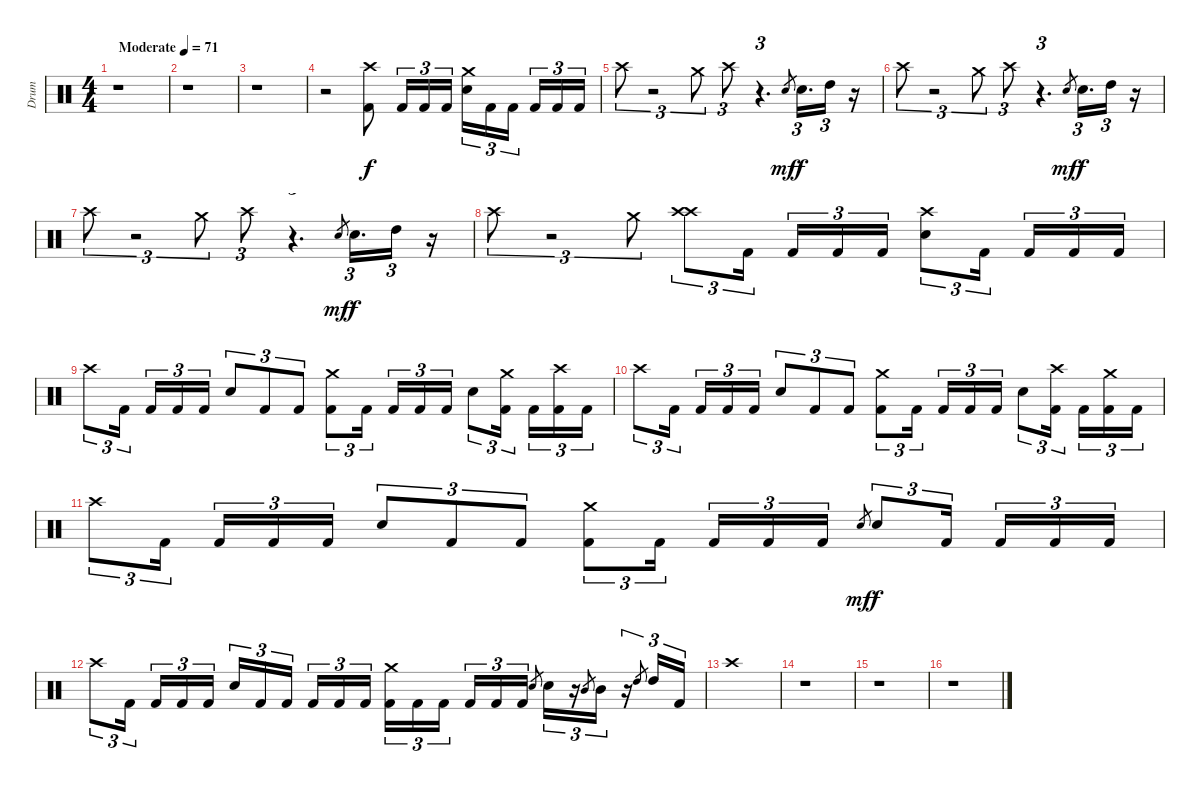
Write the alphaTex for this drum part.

\track ("Drum" "Drum") {instrument percussion}
\staff {score}
\articulation defaults
\ts (4 4)
\tempo (71 "Moderate")
\clef neutral
\ks c
r.1{dy f} |
r.1 |
r.1 |
r.2 ("Crash high (hit)" "Kick (hit) 2").8 "Kick (hit) 2".16{tu (3 2)} "Kick (hit) 2".16{tu (3 2)} "Kick (hit) 2".16{tu (3 2)} ("Crash medium (hit)" "Electric Snare (hit)").16{tu (3 2)} "Kick (hit) 2".16{tu (3 2)} "Kick (hit) 2".16{tu (3 2) beam splitsecondary} "Kick (hit) 2".16{tu (3 2)} "Kick (hit) 2".16{tu (3 2)} "Kick (hit) 2".16{tu (3 2)} |
"Crash high (hit)".8{tu (3 2)} r.2{tu (3 2)} "Crash medium (hit)".8{tu (3 2)} "Crash high (hit)".8{tu (3 2)} r.4{d tu (3 2)} "Electric Snare (hit)".8{gr dy mf} "Electric Snare (hit)".16{d tu (3 2) dy f} "High Tom (hit)".16{tu (3 2)} r.16 |
"Crash high (hit)".8{tu (3 2)} r.2{tu (3 2)} "Crash medium (hit)".8{tu (3 2)} "Crash high (hit)".8{tu (3 2)} r.4{d tu (3 2)} "Electric Snare (hit)".8{gr dy mf} "Electric Snare (hit)".16{d tu (3 2) dy f} "High Tom (hit)".16{tu (3 2)} r.16 |
"Crash high (hit)".8{tu (3 2)} r.2{tu (3 2)} "Crash medium (hit)".8{tu (3 2)} "Crash high (hit)".8{tu (3 2)} r.4{d tu (3 2)} "Electric Snare (hit)".8{gr dy mf} "Electric Snare (hit)".16{d tu (3 2) dy f} "High Tom (hit)".16{tu (3 2)} r.16 |
"Crash high (hit)".8{tu (3 2)} r.2{tu (3 2)} "Crash medium (hit)".8{tu (3 2)} ("Crash high (hit)" "Crash high (hit)").8{tu (3 2)} "Kick (hit) 2".16{tu (3 2) beam splitsecondary} "Kick (hit) 2".16{tu (3 2)} "Kick (hit) 2".16{tu (3 2)} "Kick (hit) 2".16{tu (3 2)} ("Crash high (hit)" "Electric Snare (hit)").8{tu (3 2)} "Kick (hit) 2".16{tu (3 2) beam splitsecondary} "Kick (hit) 2".16{tu (3 2)} "Kick (hit) 2".16{tu (3 2)} "Kick (hit) 2".16{tu (3 2)} |
"Crash high (hit)".8{tu (3 2)} "Kick (hit) 2".16{tu (3 2) beam splitsecondary} "Kick (hit) 2".16{tu (3 2)} "Kick (hit) 2".16{tu (3 2)} "Kick (hit) 2".16{tu (3 2)} "Electric Snare (hit)".8{tu (3 2)} "Kick (hit) 2".8{tu (3 2)} "Kick (hit) 2".8{tu (3 2)} ("Kick (hit) 2" "Crash medium (hit)").8{tu (3 2)} "Kick (hit) 2".16{tu (3 2) beam splitsecondary} "Kick (hit) 2".16{tu (3 2)} "Kick (hit) 2".16{tu (3 2)} "Kick (hit) 2".16{tu (3 2)} "Electric Snare (hit)".8{tu (3 2)} ("Crash medium (hit)" "Kick (hit) 2").16{tu (3 2) beam splitsecondary} "Kick (hit) 2".16{tu (3 2)} ("Crash high (hit)" "Kick (hit) 2").16{tu (3 2)} "Kick (hit) 2".16{tu (3 2)} |
"Crash high (hit)".8{tu (3 2)} "Kick (hit) 2".16{tu (3 2) beam splitsecondary} "Kick (hit) 2".16{tu (3 2)} "Kick (hit) 2".16{tu (3 2)} "Kick (hit) 2".16{tu (3 2)} "Electric Snare (hit)".8{tu (3 2)} "Kick (hit) 2".8{tu (3 2)} "Kick (hit) 2".8{tu (3 2)} ("Kick (hit) 2" "Crash medium (hit)").8{tu (3 2)} "Kick (hit) 2".16{tu (3 2) beam splitsecondary} "Kick (hit) 2".16{tu (3 2)} "Kick (hit) 2".16{tu (3 2)} "Kick (hit) 2".16{tu (3 2)} "Electric Snare (hit)".8{tu (3 2)} ("Crash high (hit)" "Kick (hit) 2").16{tu (3 2) beam splitsecondary} "Kick (hit) 2".16{tu (3 2)} ("Crash medium (hit)" "Kick (hit) 2").16{tu (3 2)} "Kick (hit) 2".16{tu (3 2)} |
"Crash high (hit)".8{tu (3 2)} "Kick (hit) 2".16{tu (3 2) beam splitsecondary} "Kick (hit) 2".16{tu (3 2)} "Kick (hit) 2".16{tu (3 2)} "Kick (hit) 2".16{tu (3 2)} "Electric Snare (hit)".8{tu (3 2)} "Kick (hit) 2".8{tu (3 2)} "Kick (hit) 2".8{tu (3 2)} ("Kick (hit) 2" "Crash medium (hit)").8{tu (3 2)} "Kick (hit) 2".16{tu (3 2) beam splitsecondary} "Kick (hit) 2".16{tu (3 2)} "Kick (hit) 2".16{tu (3 2)} "Kick (hit) 2".16{tu (3 2)} "Electric Snare (hit)".8{gr dy mf} "Electric Snare (hit)".8{tu (3 2) dy f} "Kick (hit) 2".16{tu (3 2) beam splitsecondary} "Kick (hit) 2".16{tu (3 2)} "Kick (hit) 2".16{tu (3 2)} "Kick (hit) 2".16{tu (3 2)} |
"Crash high (hit)".8{tu (3 2)} "Kick (hit) 2".16{tu (3 2) beam splitsecondary} "Kick (hit) 2".16{tu (3 2)} "Kick (hit) 2".16{tu (3 2)} "Kick (hit) 2".16{tu (3 2)} "Electric Snare (hit)".16{tu (3 2)} "Kick (hit) 2".16{tu (3 2)} "Kick (hit) 2".16{tu (3 2) beam splitsecondary} "Kick (hit) 2".16{tu (3 2)} "Kick (hit) 2".16{tu (3 2)} "Kick (hit) 2".16{tu (3 2)} ("Kick (hit) 2" "Crash medium (hit)").16{tu (3 2)} "Kick (hit) 2".16{tu (3 2)} "Kick (hit) 2".16{tu (3 2) beam splitsecondary} "Kick (hit) 2".16{tu (3 2)} "Kick (hit) 2".16{tu (3 2)} "Kick (hit) 2".16{tu (3 2)} "Electric Snare (hit)".8{gr} "Electric Snare (hit)".16{tu (3 2)} r.16{tu (3 2)} "Mid Tom (hit)".8{gr} "Mid Tom (hit)".16{tu (3 2)} r.16{tu (3 2)} "High Tom (hit)".8{gr} "High Tom (hit)".16{tu (3 2)} "Kick (hit) 2".16{tu (3 2)} |
"Crash high (hit)".1 |
r.1 |
r.1 |
r.1
